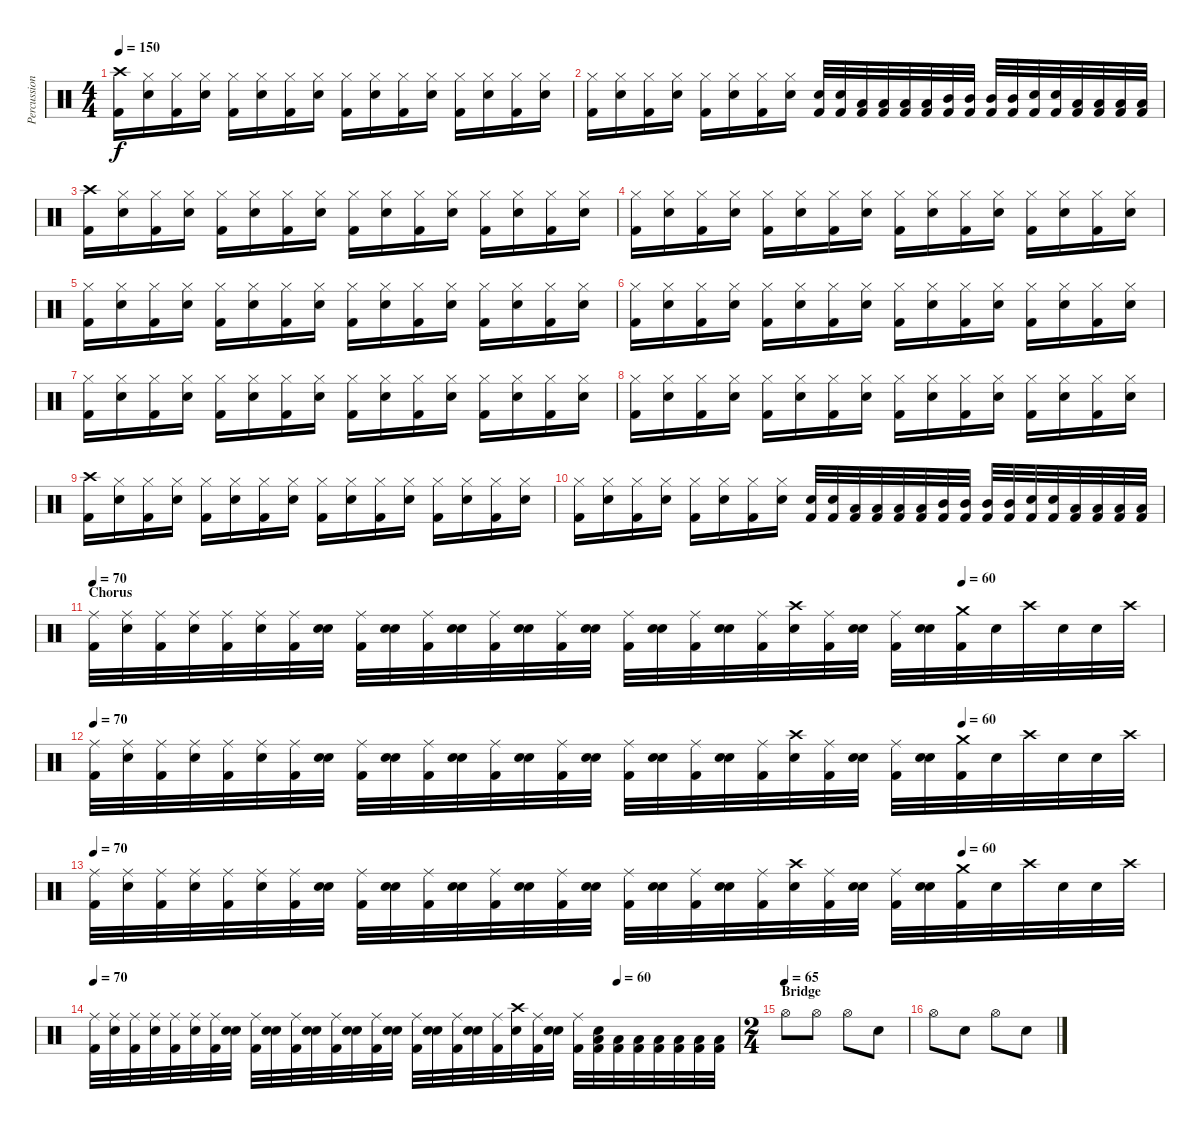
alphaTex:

\track ("Percussion" "Percussion") {instrument percussion}
\staff {score}
\articulation defaults
\ts (4 4)
\tempo 150
\clef neutral
\ks c
("Crash high (hit)" "Kick (hit) 2").16{dy f} ("Hi-Hat (closed)" "Electric Snare (hit)").16 ("Hi-Hat (closed)" "Kick (hit) 2").16 ("Hi-Hat (closed)" "Electric Snare (hit)").16 ("Hi-Hat (closed)" "Kick (hit) 2").16 ("Hi-Hat (closed)" "Electric Snare (hit)").16 ("Hi-Hat (closed)" "Kick (hit) 2").16 ("Hi-Hat (closed)" "Electric Snare (hit)").16 ("Hi-Hat (closed)" "Kick (hit) 2").16 ("Hi-Hat (closed)" "Electric Snare (hit)").16 ("Hi-Hat (closed)" "Kick (hit) 2").16 ("Hi-Hat (closed)" "Electric Snare (hit)").16 ("Hi-Hat (closed)" "Kick (hit) 2").16 ("Hi-Hat (closed)" "Electric Snare (hit)").16 ("Hi-Hat (closed)" "Kick (hit) 2").16 ("Hi-Hat (closed)" "Electric Snare (hit)").16 |
("Hi-Hat (closed)" "Kick (hit) 2").16 ("Hi-Hat (closed)" "Electric Snare (hit)").16 ("Hi-Hat (closed)" "Kick (hit) 2").16 ("Hi-Hat (closed)" "Electric Snare (hit)").16 ("Hi-Hat (closed)" "Kick (hit) 2").16 ("Hi-Hat (closed)" "Electric Snare (hit)").16 ("Hi-Hat (closed)" "Kick (hit) 2").16 ("Hi-Hat (closed)" "Electric Snare (hit)").16 ("Electric Snare (hit)" "Kick (hit) 2").32 ("Electric Snare (hit)" "Kick (hit) 2").32 ("Low Tom (hit)" "Kick (hit) 2").32 ("Low Tom (hit)" "Kick (hit) 2").32 ("Low Tom (hit)" "Kick (hit) 2").32 ("Low Tom (hit)" "Kick (hit) 2").32 ("Mid Tom (hit)" "Kick (hit) 2").32 ("Mid Tom (hit)" "Kick (hit) 2").32 ("Mid Tom (hit)" "Kick (hit) 2").32 ("Mid Tom (hit)" "Kick (hit) 2").32 ("Electric Snare (hit)" "Kick (hit) 2").32 ("Electric Snare (hit)" "Kick (hit) 2").32 ("Low Tom (hit)" "Kick (hit) 2").32 ("Low Tom (hit)" "Kick (hit) 2").32 ("Low Tom (hit)" "Kick (hit) 2").32 ("Low Tom (hit)" "Kick (hit) 2").32 |
("Crash high (hit)" "Kick (hit) 2").16 ("Hi-Hat (closed)" "Electric Snare (hit)").16 ("Hi-Hat (closed)" "Kick (hit) 2").16 ("Hi-Hat (closed)" "Electric Snare (hit)").16 ("Hi-Hat (closed)" "Kick (hit) 2").16 ("Hi-Hat (closed)" "Electric Snare (hit)").16 ("Hi-Hat (closed)" "Kick (hit) 2").16 ("Hi-Hat (closed)" "Electric Snare (hit)").16 ("Hi-Hat (closed)" "Kick (hit) 2").16 ("Hi-Hat (closed)" "Electric Snare (hit)").16 ("Hi-Hat (closed)" "Kick (hit) 2").16 ("Hi-Hat (closed)" "Electric Snare (hit)").16 ("Hi-Hat (closed)" "Kick (hit) 2").16 ("Hi-Hat (closed)" "Electric Snare (hit)").16 ("Hi-Hat (closed)" "Kick (hit) 2").16 ("Hi-Hat (closed)" "Electric Snare (hit)").16 |
("Hi-Hat (closed)" "Kick (hit) 2").16 ("Hi-Hat (closed)" "Electric Snare (hit)").16 ("Hi-Hat (closed)" "Kick (hit) 2").16 ("Hi-Hat (closed)" "Electric Snare (hit)").16 ("Hi-Hat (closed)" "Kick (hit) 2").16 ("Hi-Hat (closed)" "Electric Snare (hit)").16 ("Hi-Hat (closed)" "Kick (hit) 2").16 ("Hi-Hat (closed)" "Electric Snare (hit)").16 ("Hi-Hat (closed)" "Kick (hit) 2").16 ("Hi-Hat (closed)" "Electric Snare (hit)").16 ("Hi-Hat (closed)" "Kick (hit) 2").16 ("Hi-Hat (closed)" "Electric Snare (hit)").16 ("Hi-Hat (closed)" "Kick (hit) 2").16 ("Hi-Hat (closed)" "Electric Snare (hit)").16 ("Hi-Hat (closed)" "Kick (hit) 2").16 ("Hi-Hat (closed)" "Electric Snare (hit)").16 |
("Hi-Hat (closed)" "Kick (hit) 2").16 ("Hi-Hat (closed)" "Electric Snare (hit)").16 ("Hi-Hat (closed)" "Kick (hit) 2").16 ("Hi-Hat (closed)" "Electric Snare (hit)").16 ("Hi-Hat (closed)" "Kick (hit) 2").16 ("Hi-Hat (closed)" "Electric Snare (hit)").16 ("Hi-Hat (closed)" "Kick (hit) 2").16 ("Hi-Hat (closed)" "Electric Snare (hit)").16 ("Hi-Hat (closed)" "Kick (hit) 2").16 ("Hi-Hat (closed)" "Electric Snare (hit)").16 ("Hi-Hat (closed)" "Kick (hit) 2").16 ("Hi-Hat (closed)" "Electric Snare (hit)").16 ("Hi-Hat (closed)" "Kick (hit) 2").16 ("Hi-Hat (closed)" "Electric Snare (hit)").16 ("Hi-Hat (closed)" "Kick (hit) 2").16 ("Hi-Hat (closed)" "Electric Snare (hit)").16 |
("Hi-Hat (closed)" "Kick (hit) 2").16 ("Hi-Hat (closed)" "Electric Snare (hit)").16 ("Hi-Hat (closed)" "Kick (hit) 2").16 ("Hi-Hat (closed)" "Electric Snare (hit)").16 ("Hi-Hat (closed)" "Kick (hit) 2").16 ("Hi-Hat (closed)" "Electric Snare (hit)").16 ("Hi-Hat (closed)" "Kick (hit) 2").16 ("Hi-Hat (closed)" "Electric Snare (hit)").16 ("Hi-Hat (closed)" "Kick (hit) 2").16 ("Hi-Hat (closed)" "Electric Snare (hit)").16 ("Hi-Hat (closed)" "Kick (hit) 2").16 ("Hi-Hat (closed)" "Electric Snare (hit)").16 ("Hi-Hat (closed)" "Kick (hit) 2").16 ("Hi-Hat (closed)" "Electric Snare (hit)").16 ("Hi-Hat (closed)" "Kick (hit) 2").16 ("Hi-Hat (closed)" "Electric Snare (hit)").16 |
("Hi-Hat (closed)" "Kick (hit) 2").16 ("Hi-Hat (closed)" "Electric Snare (hit)").16 ("Hi-Hat (closed)" "Kick (hit) 2").16 ("Hi-Hat (closed)" "Electric Snare (hit)").16 ("Hi-Hat (closed)" "Kick (hit) 2").16 ("Hi-Hat (closed)" "Electric Snare (hit)").16 ("Hi-Hat (closed)" "Kick (hit) 2").16 ("Hi-Hat (closed)" "Electric Snare (hit)").16 ("Hi-Hat (closed)" "Kick (hit) 2").16 ("Hi-Hat (closed)" "Electric Snare (hit)").16 ("Hi-Hat (closed)" "Kick (hit) 2").16 ("Hi-Hat (closed)" "Electric Snare (hit)").16 ("Hi-Hat (closed)" "Kick (hit) 2").16 ("Hi-Hat (closed)" "Electric Snare (hit)").16 ("Hi-Hat (closed)" "Kick (hit) 2").16 ("Hi-Hat (closed)" "Electric Snare (hit)").16 |
("Hi-Hat (closed)" "Kick (hit) 2").16 ("Hi-Hat (closed)" "Electric Snare (hit)").16 ("Hi-Hat (closed)" "Kick (hit) 2").16 ("Hi-Hat (closed)" "Electric Snare (hit)").16 ("Hi-Hat (closed)" "Kick (hit) 2").16 ("Hi-Hat (closed)" "Electric Snare (hit)").16 ("Hi-Hat (closed)" "Kick (hit) 2").16 ("Hi-Hat (closed)" "Electric Snare (hit)").16 ("Hi-Hat (closed)" "Kick (hit) 2").16 ("Hi-Hat (closed)" "Electric Snare (hit)").16 ("Hi-Hat (closed)" "Kick (hit) 2").16 ("Hi-Hat (closed)" "Electric Snare (hit)").16 ("Hi-Hat (closed)" "Kick (hit) 2").16 ("Hi-Hat (closed)" "Electric Snare (hit)").16 ("Hi-Hat (closed)" "Kick (hit) 2").16 ("Hi-Hat (closed)" "Electric Snare (hit)").16 |
("Crash high (hit)" "Kick (hit) 2").16 ("Hi-Hat (closed)" "Electric Snare (hit)").16 ("Hi-Hat (closed)" "Kick (hit) 2").16 ("Hi-Hat (closed)" "Electric Snare (hit)").16 ("Hi-Hat (closed)" "Kick (hit) 2").16 ("Hi-Hat (closed)" "Electric Snare (hit)").16 ("Hi-Hat (closed)" "Kick (hit) 2").16 ("Hi-Hat (closed)" "Electric Snare (hit)").16 ("Hi-Hat (closed)" "Kick (hit) 2").16 ("Hi-Hat (closed)" "Electric Snare (hit)").16 ("Hi-Hat (closed)" "Kick (hit) 2").16 ("Hi-Hat (closed)" "Electric Snare (hit)").16 ("Hi-Hat (closed)" "Kick (hit) 2").16 ("Hi-Hat (closed)" "Electric Snare (hit)").16 ("Hi-Hat (closed)" "Kick (hit) 2").16 ("Hi-Hat (closed)" "Electric Snare (hit)").16 |
("Hi-Hat (closed)" "Kick (hit) 2").16 ("Hi-Hat (closed)" "Electric Snare (hit)").16 ("Hi-Hat (closed)" "Kick (hit) 2").16 ("Hi-Hat (closed)" "Electric Snare (hit)").16 ("Hi-Hat (closed)" "Kick (hit) 2").16 ("Hi-Hat (closed)" "Electric Snare (hit)").16 ("Hi-Hat (closed)" "Kick (hit) 2").16 ("Hi-Hat (closed)" "Electric Snare (hit)").16 ("Electric Snare (hit)" "Kick (hit) 2").32 ("Electric Snare (hit)" "Kick (hit) 2").32 ("Low Tom (hit)" "Kick (hit) 2").32 ("Low Tom (hit)" "Kick (hit) 2").32 ("Low Tom (hit)" "Kick (hit) 2").32 ("Low Tom (hit)" "Kick (hit) 2").32 ("Mid Tom (hit)" "Kick (hit) 2").32 ("Mid Tom (hit)" "Kick (hit) 2").32 ("Mid Tom (hit)" "Kick (hit) 2").32 ("Mid Tom (hit)" "Kick (hit) 2").32 ("Electric Snare (hit)" "Kick (hit) 2").32 ("Electric Snare (hit)" "Kick (hit) 2").32 ("Low Tom (hit)" "Kick (hit) 2").32 ("Low Tom (hit)" "Kick (hit) 2").32 ("Low Tom (hit)" "Kick (hit) 2").32 ("Low Tom (hit)" "Kick (hit) 2").32 |
\section ("" "Chorus")
\tempo 70
\tempo (60 0.8125)
("Ride (middle)" "Kick (hit) 2").32 ("Ride (middle)"{x} "Electric Snare (hit)").32 ("Ride (middle)" "Kick (hit) 2").32 ("Ride (middle)"{x} "Electric Snare (hit)").32 ("Ride (middle)" "Kick (hit) 2").32 ("Ride (middle)"{x} "Electric Snare (hit)").32 ("Ride (middle)" "Kick (hit) 2").32 ("Snare (hit)"{x} "Electric Snare (hit)").32 ("Ride (middle)" "Kick (hit) 2").32 ("Snare (hit)"{x} "Electric Snare (hit)").32 ("Ride (middle)" "Kick (hit) 2").32 ("Snare (hit)"{x} "Electric Snare (hit)").32 ("Ride (middle)" "Kick (hit) 2").32 ("Snare (hit)"{x} "Electric Snare (hit)").32 ("Ride (middle)" "Kick (hit) 2").32 ("Snare (hit)"{x} "Electric Snare (hit)").32 ("Ride (middle)" "Kick (hit) 2").32 ("Snare (hit)"{x} "Electric Snare (hit)").32 ("Ride (middle)" "Kick (hit) 2").32 ("Snare (hit)"{x} "Electric Snare (hit)").32 ("Ride (middle)" "Kick (hit) 2").32 ("Crash high (hit)"{x} "Electric Snare (hit)").32 ("Ride (middle)" "Kick (hit) 2").32 ("Snare (hit)"{x} "Electric Snare (hit)").32 ("Ride (middle)" "Kick (hit) 2").32 ("Snare (hit)"{x} "Electric Snare (hit)").32 ("Crash medium (hit)" "Kick (hit) 2").32 "Snare (hit)"{x}.32 "Crash high (hit)".32 "Snare (hit)"{x}.32 "Snare (hit)"{x}.32 "Crash high (hit)".32 |
\tempo 70
\tempo (60 0.8125)
("Ride (middle)" "Kick (hit) 2").32 ("Ride (middle)"{x} "Electric Snare (hit)").32 ("Ride (middle)" "Kick (hit) 2").32 ("Ride (middle)"{x} "Electric Snare (hit)").32 ("Ride (middle)" "Kick (hit) 2").32 ("Ride (middle)"{x} "Electric Snare (hit)").32 ("Ride (middle)" "Kick (hit) 2").32 ("Snare (hit)"{x} "Electric Snare (hit)").32 ("Ride (middle)" "Kick (hit) 2").32 ("Snare (hit)"{x} "Electric Snare (hit)").32 ("Ride (middle)" "Kick (hit) 2").32 ("Snare (hit)"{x} "Electric Snare (hit)").32 ("Ride (middle)" "Kick (hit) 2").32 ("Snare (hit)"{x} "Electric Snare (hit)").32 ("Ride (middle)" "Kick (hit) 2").32 ("Snare (hit)"{x} "Electric Snare (hit)").32 ("Ride (middle)" "Kick (hit) 2").32 ("Snare (hit)"{x} "Electric Snare (hit)").32 ("Ride (middle)" "Kick (hit) 2").32 ("Snare (hit)"{x} "Electric Snare (hit)").32 ("Ride (middle)" "Kick (hit) 2").32 ("Crash high (hit)"{x} "Electric Snare (hit)").32 ("Ride (middle)" "Kick (hit) 2").32 ("Snare (hit)"{x} "Electric Snare (hit)").32 ("Ride (middle)" "Kick (hit) 2").32 ("Snare (hit)"{x} "Electric Snare (hit)").32 ("Crash medium (hit)" "Kick (hit) 2").32 "Snare (hit)"{x}.32 "Crash high (hit)".32 "Snare (hit)"{x}.32 "Snare (hit)"{x}.32 "Crash high (hit)".32 |
\tempo 70
\tempo (60 0.8125)
("Ride (middle)" "Kick (hit) 2").32 ("Ride (middle)"{x} "Electric Snare (hit)").32 ("Ride (middle)" "Kick (hit) 2").32 ("Ride (middle)"{x} "Electric Snare (hit)").32 ("Ride (middle)" "Kick (hit) 2").32 ("Ride (middle)"{x} "Electric Snare (hit)").32 ("Ride (middle)" "Kick (hit) 2").32 ("Snare (hit)"{x} "Electric Snare (hit)").32 ("Ride (middle)" "Kick (hit) 2").32 ("Snare (hit)"{x} "Electric Snare (hit)").32 ("Ride (middle)" "Kick (hit) 2").32 ("Snare (hit)"{x} "Electric Snare (hit)").32 ("Ride (middle)" "Kick (hit) 2").32 ("Snare (hit)"{x} "Electric Snare (hit)").32 ("Ride (middle)" "Kick (hit) 2").32 ("Snare (hit)"{x} "Electric Snare (hit)").32 ("Ride (middle)" "Kick (hit) 2").32 ("Snare (hit)"{x} "Electric Snare (hit)").32 ("Ride (middle)" "Kick (hit) 2").32 ("Snare (hit)"{x} "Electric Snare (hit)").32 ("Ride (middle)" "Kick (hit) 2").32 ("Crash high (hit)"{x} "Electric Snare (hit)").32 ("Ride (middle)" "Kick (hit) 2").32 ("Snare (hit)"{x} "Electric Snare (hit)").32 ("Ride (middle)" "Kick (hit) 2").32 ("Snare (hit)"{x} "Electric Snare (hit)").32 ("Crash medium (hit)" "Kick (hit) 2").32 "Snare (hit)"{x}.32 "Crash high (hit)".32 "Snare (hit)"{x}.32 "Snare (hit)"{x}.32 "Crash high (hit)".32 |
\tempo 70
\tempo (60 0.8125)
("Ride (middle)" "Kick (hit) 2").32 ("Ride (middle)"{x} "Electric Snare (hit)").32 ("Ride (middle)" "Kick (hit) 2").32 ("Ride (middle)"{x} "Electric Snare (hit)").32 ("Ride (middle)" "Kick (hit) 2").32 ("Ride (middle)"{x} "Electric Snare (hit)").32 ("Ride (middle)" "Kick (hit) 2").32 ("Snare (hit)"{x} "Electric Snare (hit)").32 ("Ride (middle)" "Kick (hit) 2").32 ("Snare (hit)"{x} "Electric Snare (hit)").32 ("Ride (middle)" "Kick (hit) 2").32 ("Snare (hit)"{x} "Electric Snare (hit)").32 ("Ride (middle)" "Kick (hit) 2").32 ("Snare (hit)"{x} "Electric Snare (hit)").32 ("Ride (middle)" "Kick (hit) 2").32 ("Snare (hit)"{x} "Electric Snare (hit)").32 ("Ride (middle)" "Kick (hit) 2").32 ("Snare (hit)"{x} "Electric Snare (hit)").32 ("Ride (middle)" "Kick (hit) 2").32 ("Snare (hit)"{x} "Electric Snare (hit)").32 ("Ride (middle)" "Kick (hit) 2").32 ("Crash high (hit)"{x} "Electric Snare (hit)").32 ("Ride (middle)" "Kick (hit) 2").32 ("Snare (hit)"{x} "Electric Snare (hit)").32 ("Ride (middle)" "Kick (hit) 2").32 ("Snare (hit)"{x} "Low Tom (hit)" "Kick (hit) 2").32 ("Low Tom (hit)" "Kick (hit) 2").32 ("Low Tom (hit)" "Kick (hit) 2").32 ("Low Tom (hit)" "Kick (hit) 2").32 ("Low Tom (hit)" "Kick (hit) 2").32 ("Low Tom (hit)" "Kick (hit) 2").32 ("Low Tom (hit)" "Kick (hit) 2").32 |
\ts (2 4)
\section ("" "Bridge")
\tempo (65)
"Hi-Hat (open)".8 "Hi-Hat (open)"{x}.8 "Hi-Hat (open)".8 "Snare (hit)"{x}.8 |
"Hi-Hat (open)".8 "Snare (hit)"{x}.8 "Hi-Hat (open)".8 "Snare (hit)"{x}.8
